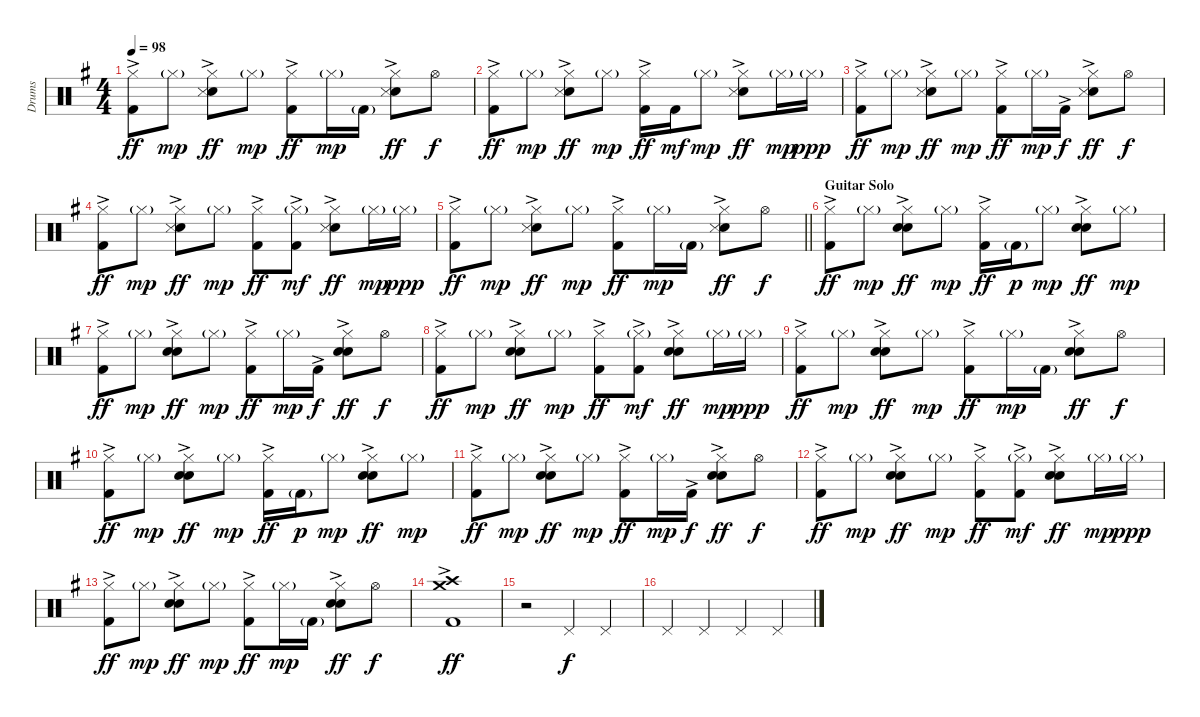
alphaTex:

\track ("Drums" "Drums") {instrument percussion}
\staff {score}
\articulation defaults
\ts (4 4)
\tempo 98
\clef neutral
\ks g
("Hi-Hat (closed)" "Kick (hit) 2"{ac}).8{dy ff} "Hi-Hat (closed)"{g}.8{dy mp} ("Hi-Hat (closed)" "Hand Clap (hit)" "Snare (side stick) 3"{ac}).8{dy ff} "Hi-Hat (closed)"{g}.8{dy mp} ("Hi-Hat (closed)" "Kick (hit) 2"{ac}).8{dy ff} "Hi-Hat (closed)"{g}.16{dy mp} "Kick (hit) 2"{g}.16 ("Hi-Hat (closed)" "Hand Clap (hit)" "Snare (side stick) 3"{ac}).8{dy ff} "Hi-Hat (open)".8{dy f} |
("Hi-Hat (closed)" "Kick (hit) 2"{ac}).8{dy ff} "Hi-Hat (closed)"{g}.8{dy mp} ("Hi-Hat (closed)" "Hand Clap (hit)" "Snare (side stick) 3"{ac}).8{dy ff} "Hi-Hat (closed)"{g}.8{dy mp} ("Hi-Hat (closed)" "Kick (hit) 2"{ac}).16{dy ff} "Kick (hit) 2".16{dy mf} "Hi-Hat (closed)"{g}.8{dy mp} ("Hi-Hat (closed)" "Hand Clap (hit)" "Snare (side stick) 3"{ac}).8{dy ff} "Hi-Hat (closed)"{g}.16{dy mp} "Hi-Hat (closed)"{g}.16{dy ppp} |
("Hi-Hat (closed)" "Kick (hit) 2"{ac}).8{dy ff} "Hi-Hat (closed)"{g}.8{dy mp} ("Hi-Hat (closed)" "Hand Clap (hit)" "Snare (side stick) 3"{ac}).8{dy ff} "Hi-Hat (closed)"{g}.8{dy mp} ("Hi-Hat (closed)" "Kick (hit) 2"{ac}).8{dy ff} "Hi-Hat (closed)"{g}.16{dy mp} "Kick (hit) 2"{ac}.16{dy f} ("Hi-Hat (closed)" "Hand Clap (hit)" "Snare (side stick) 3"{ac}).8{dy ff} "Hi-Hat (open)".8{dy f} |
("Hi-Hat (closed)" "Kick (hit) 2"{ac}).8{dy ff} "Hi-Hat (closed)"{g}.8{dy mp} ("Hi-Hat (closed)" "Hand Clap (hit)" "Snare (side stick) 3"{ac}).8{dy ff} "Hi-Hat (closed)"{g}.8{dy mp} ("Hi-Hat (closed)" "Kick (hit) 2"{ac}).8{dy ff} ("Hi-Hat (closed)"{g} "Kick (hit) 2"{ac}).8{dy mf} ("Hi-Hat (closed)" "Hand Clap (hit)" "Snare (side stick) 3"{ac}).8{dy ff} "Hi-Hat (closed)"{g}.16{dy mp} "Hi-Hat (closed)"{g}.16{dy ppp} |
\barLineRight lightlight
("Hi-Hat (closed)" "Kick (hit) 2"{ac}).8{dy ff} "Hi-Hat (closed)"{g}.8{dy mp} ("Hi-Hat (closed)" "Hand Clap (hit)" "Snare (side stick) 3"{ac}).8{dy ff} "Hi-Hat (closed)"{g}.8{dy mp} ("Hi-Hat (closed)" "Kick (hit) 2"{ac}).8{dy ff} "Hi-Hat (closed)"{g}.16{dy mp} "Kick (hit) 2"{g}.16 ("Hi-Hat (closed)" "Hand Clap (hit)" "Snare (side stick) 3"{ac}).8{dy ff} "Hi-Hat (open)".8{dy f} |
\section ("" "Guitar Solo")
("Hi-Hat (closed)" "Kick (hit) 2"{ac}).8{dy ff} "Hi-Hat (closed)"{g}.8{dy mp} ("Hi-Hat (closed)" "Hand Clap (hit)" "Snare (hit) 2"{ac}).8{dy ff} "Hi-Hat (closed)"{g}.8{dy mp} ("Hi-Hat (closed)" "Kick (hit) 2"{ac}).16{dy ff} "Kick (hit) 2"{g}.16{dy p} "Hi-Hat (closed)"{g}.8{dy mp} ("Hi-Hat (closed)" "Hand Clap (hit)" "Snare (hit) 2"{ac}).8{dy ff} "Hi-Hat (closed)"{g}.8{dy mp} |
("Hi-Hat (closed)" "Kick (hit) 2"{ac}).8{dy ff} "Hi-Hat (closed)"{g}.8{dy mp} ("Hi-Hat (closed)" "Hand Clap (hit)" "Snare (hit) 2"{ac}).8{dy ff} "Hi-Hat (closed)"{g}.8{dy mp} ("Hi-Hat (closed)" "Kick (hit) 2"{ac}).8{dy ff} "Hi-Hat (closed)"{g}.16{dy mp} "Kick (hit) 2"{ac}.16{dy f} ("Hi-Hat (closed)" "Hand Clap (hit)" "Snare (hit) 2"{ac}).8{dy ff} "Hi-Hat (open)".8{dy f} |
("Hi-Hat (closed)" "Kick (hit) 2"{ac}).8{dy ff} "Hi-Hat (closed)"{g}.8{dy mp} ("Hi-Hat (closed)" "Hand Clap (hit)" "Snare (hit) 2"{ac}).8{dy ff} "Hi-Hat (closed)"{g}.8{dy mp} ("Hi-Hat (closed)" "Kick (hit) 2"{ac}).8{dy ff} ("Hi-Hat (closed)"{g} "Kick (hit) 2"{ac}).8{dy mf} ("Hi-Hat (closed)" "Hand Clap (hit)" "Snare (hit) 2"{ac}).8{dy ff} "Hi-Hat (closed)"{g}.16{dy mp} "Hi-Hat (closed)"{g}.16{dy ppp} |
("Hi-Hat (closed)" "Kick (hit) 2"{ac}).8{dy ff} "Hi-Hat (closed)"{g}.8{dy mp} ("Hi-Hat (closed)" "Hand Clap (hit)" "Snare (hit) 2"{ac}).8{dy ff} "Hi-Hat (closed)"{g}.8{dy mp} ("Hi-Hat (closed)" "Kick (hit) 2"{ac}).8{dy ff} "Hi-Hat (closed)"{g}.16{dy mp} "Kick (hit) 2"{g}.16 ("Hi-Hat (closed)" "Hand Clap (hit)" "Snare (hit) 2"{ac}).8{dy ff} "Hi-Hat (open)".8{dy f} |
("Hi-Hat (closed)" "Kick (hit) 2"{ac}).8{dy ff} "Hi-Hat (closed)"{g}.8{dy mp} ("Hi-Hat (closed)" "Hand Clap (hit)" "Snare (hit) 2"{ac}).8{dy ff} "Hi-Hat (closed)"{g}.8{dy mp} ("Hi-Hat (closed)" "Kick (hit) 2"{ac}).16{dy ff} "Kick (hit) 2"{g}.16{dy p} "Hi-Hat (closed)"{g}.8{dy mp} ("Hi-Hat (closed)" "Hand Clap (hit)" "Snare (hit) 2"{ac}).8{dy ff} "Hi-Hat (closed)"{g}.8{dy mp} |
("Hi-Hat (closed)" "Kick (hit) 2"{ac}).8{dy ff} "Hi-Hat (closed)"{g}.8{dy mp} ("Hi-Hat (closed)" "Hand Clap (hit)" "Snare (hit) 2"{ac}).8{dy ff} "Hi-Hat (closed)"{g}.8{dy mp} ("Hi-Hat (closed)" "Kick (hit) 2"{ac}).8{dy ff} "Hi-Hat (closed)"{g}.16{dy mp} "Kick (hit) 2"{ac}.16{dy f} ("Hi-Hat (closed)" "Hand Clap (hit)" "Snare (hit) 2"{ac}).8{dy ff} "Hi-Hat (open)".8{dy f} |
("Hi-Hat (closed)" "Kick (hit) 2"{ac}).8{dy ff} "Hi-Hat (closed)"{g}.8{dy mp} ("Hi-Hat (closed)" "Hand Clap (hit)" "Snare (hit) 2"{ac}).8{dy ff} "Hi-Hat (closed)"{g}.8{dy mp} ("Hi-Hat (closed)" "Kick (hit) 2"{ac}).8{dy ff} ("Hi-Hat (closed)"{g} "Kick (hit) 2"{ac}).8{dy mf} ("Hi-Hat (closed)" "Hand Clap (hit)" "Snare (hit) 2"{ac}).8{dy ff} "Hi-Hat (closed)"{g}.16{dy mp} "Hi-Hat (closed)"{g}.16{dy ppp} |
("Hi-Hat (closed)" "Kick (hit) 2"{ac}).8{dy ff} "Hi-Hat (closed)"{g}.8{dy mp} ("Hi-Hat (closed)" "Hand Clap (hit)" "Snare (hit) 2"{ac}).8{dy ff} "Hi-Hat (closed)"{g}.8{dy mp} ("Hi-Hat (closed)" "Kick (hit) 2"{ac}).8{dy ff} "Hi-Hat (closed)"{g}.16{dy mp} "Kick (hit) 2"{g}.16 ("Hi-Hat (closed)" "Hand Clap (hit)" "Snare (hit) 2"{ac}).8{dy ff} "Hi-Hat (open)".8{dy f} |
("Crash high (hit)" "Crash medium (hit)" "Kick (hit) 2"{ac}).1{dy ff} |
r.2 "Pedal Hi-Hat (hit)".4{dy f} "Pedal Hi-Hat (hit)".4 |
"Pedal Hi-Hat (hit)".4 "Pedal Hi-Hat (hit)".4 "Pedal Hi-Hat (hit)".4 "Pedal Hi-Hat (hit)".4
